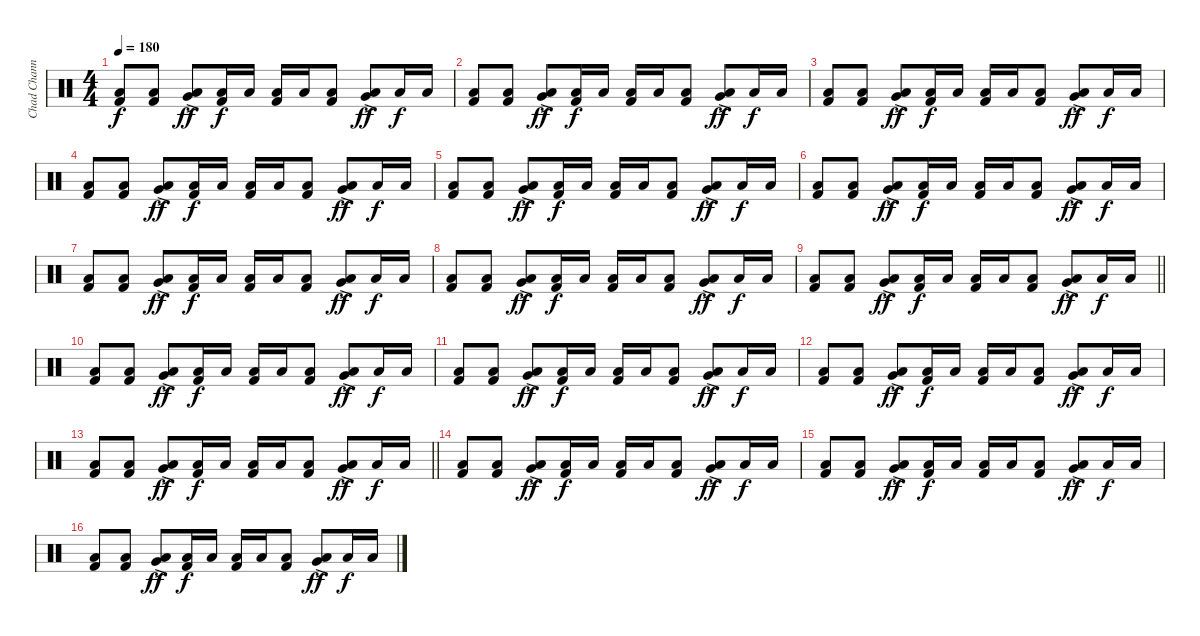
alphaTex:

\track ("Chad Channing" "Chad Chann") {instrument percussion}
\staff {score}
\articulation defaults
\ts (4 4)
\tempo 180
\clef neutral
\ks c
("Low Tom (hit)" "Kick (hit) 2").8{dy f} ("Low Tom (hit)" "Kick (hit) 2").8 ("Very Low Tom (hit)"{ac} "Low Floor Tom (hit)"{ac}).8{dy ff} ("Low Tom (hit)" "Kick (hit) 2").16{dy f} "Low Tom (hit)".16 ("Low Tom (hit)" "Kick (hit) 2").16 "Low Tom (hit)".16 ("Low Tom (hit)" "Kick (hit) 2").8 ("Very Low Tom (hit)"{ac} "Low Floor Tom (hit)"{ac}).8{dy ff} "Low Tom (hit)".16{dy f} "Low Tom (hit)".16 |
("Low Tom (hit)" "Kick (hit) 2").8 ("Low Tom (hit)" "Kick (hit) 2").8 ("Very Low Tom (hit)"{ac} "Low Floor Tom (hit)"{ac}).8{dy ff} ("Low Tom (hit)" "Kick (hit) 2").16{dy f} "Low Tom (hit)".16 ("Low Tom (hit)" "Kick (hit) 2").16 "Low Tom (hit)".16 ("Low Tom (hit)" "Kick (hit) 2").8 ("Very Low Tom (hit)"{ac} "Low Floor Tom (hit)"{ac}).8{dy ff} "Low Tom (hit)".16{dy f} "Low Tom (hit)".16 |
("Low Tom (hit)" "Kick (hit) 2").8 ("Low Tom (hit)" "Kick (hit) 2").8 ("Very Low Tom (hit)"{ac} "Low Floor Tom (hit)"{ac}).8{dy ff} ("Low Tom (hit)" "Kick (hit) 2").16{dy f} "Low Tom (hit)".16 ("Low Tom (hit)" "Kick (hit) 2").16 "Low Tom (hit)".16 ("Low Tom (hit)" "Kick (hit) 2").8 ("Very Low Tom (hit)"{ac} "Low Floor Tom (hit)"{ac}).8{dy ff} "Low Tom (hit)".16{dy f} "Low Tom (hit)".16 |
("Low Tom (hit)" "Kick (hit) 2").8 ("Low Tom (hit)" "Kick (hit) 2").8 ("Very Low Tom (hit)"{ac} "Low Floor Tom (hit)"{ac}).8{dy ff} ("Low Tom (hit)" "Kick (hit) 2").16{dy f} "Low Tom (hit)".16 ("Low Tom (hit)" "Kick (hit) 2").16 "Low Tom (hit)".16 ("Low Tom (hit)" "Kick (hit) 2").8 ("Very Low Tom (hit)"{ac} "Low Floor Tom (hit)"{ac}).8{dy ff} "Low Tom (hit)".16{dy f} "Low Tom (hit)".16 |
("Low Tom (hit)" "Kick (hit) 2").8 ("Low Tom (hit)" "Kick (hit) 2").8 ("Very Low Tom (hit)"{ac} "Low Floor Tom (hit)"{ac}).8{dy ff} ("Low Tom (hit)" "Kick (hit) 2").16{dy f} "Low Tom (hit)".16 ("Low Tom (hit)" "Kick (hit) 2").16 "Low Tom (hit)".16 ("Low Tom (hit)" "Kick (hit) 2").8 ("Very Low Tom (hit)"{ac} "Low Floor Tom (hit)"{ac}).8{dy ff} "Low Tom (hit)".16{dy f} "Low Tom (hit)".16 |
("Low Tom (hit)" "Kick (hit) 2").8 ("Low Tom (hit)" "Kick (hit) 2").8 ("Very Low Tom (hit)"{ac} "Low Floor Tom (hit)"{ac}).8{dy ff} ("Low Tom (hit)" "Kick (hit) 2").16{dy f} "Low Tom (hit)".16 ("Low Tom (hit)" "Kick (hit) 2").16 "Low Tom (hit)".16 ("Low Tom (hit)" "Kick (hit) 2").8 ("Very Low Tom (hit)"{ac} "Low Floor Tom (hit)"{ac}).8{dy ff} "Low Tom (hit)".16{dy f} "Low Tom (hit)".16 |
("Low Tom (hit)" "Kick (hit) 2").8 ("Low Tom (hit)" "Kick (hit) 2").8 ("Very Low Tom (hit)"{ac} "Low Floor Tom (hit)"{ac}).8{dy ff} ("Low Tom (hit)" "Kick (hit) 2").16{dy f} "Low Tom (hit)".16 ("Low Tom (hit)" "Kick (hit) 2").16 "Low Tom (hit)".16 ("Low Tom (hit)" "Kick (hit) 2").8 ("Very Low Tom (hit)"{ac} "Low Floor Tom (hit)"{ac}).8{dy ff} "Low Tom (hit)".16{dy f} "Low Tom (hit)".16 |
("Low Tom (hit)" "Kick (hit) 2").8 ("Low Tom (hit)" "Kick (hit) 2").8 ("Very Low Tom (hit)"{ac} "Low Floor Tom (hit)"{ac}).8{dy ff} ("Low Tom (hit)" "Kick (hit) 2").16{dy f} "Low Tom (hit)".16 ("Low Tom (hit)" "Kick (hit) 2").16 "Low Tom (hit)".16 ("Low Tom (hit)" "Kick (hit) 2").8 ("Very Low Tom (hit)"{ac} "Low Floor Tom (hit)"{ac}).8{dy ff} "Low Tom (hit)".16{dy f} "Low Tom (hit)".16 |
\barLineRight lightlight
("Low Tom (hit)" "Kick (hit) 2").8 ("Low Tom (hit)" "Kick (hit) 2").8 ("Very Low Tom (hit)"{ac} "Low Floor Tom (hit)"{ac}).8{dy ff} ("Low Tom (hit)" "Kick (hit) 2").16{dy f} "Low Tom (hit)".16 ("Low Tom (hit)" "Kick (hit) 2").16 "Low Tom (hit)".16 ("Low Tom (hit)" "Kick (hit) 2").8 ("Very Low Tom (hit)"{ac} "Low Floor Tom (hit)"{ac}).8{dy ff} "Low Tom (hit)".16{dy f} "Low Tom (hit)".16 |
("Low Tom (hit)" "Kick (hit) 2").8 ("Low Tom (hit)" "Kick (hit) 2").8 ("Very Low Tom (hit)"{ac} "Low Floor Tom (hit)"{ac}).8{dy ff} ("Low Tom (hit)" "Kick (hit) 2").16{dy f} "Low Tom (hit)".16 ("Low Tom (hit)" "Kick (hit) 2").16 "Low Tom (hit)".16 ("Low Tom (hit)" "Kick (hit) 2").8 ("Very Low Tom (hit)"{ac} "Low Floor Tom (hit)"{ac}).8{dy ff} "Low Tom (hit)".16{dy f} "Low Tom (hit)".16 |
("Low Tom (hit)" "Kick (hit) 2").8 ("Low Tom (hit)" "Kick (hit) 2").8 ("Very Low Tom (hit)"{ac} "Low Floor Tom (hit)"{ac}).8{dy ff} ("Low Tom (hit)" "Kick (hit) 2").16{dy f} "Low Tom (hit)".16 ("Low Tom (hit)" "Kick (hit) 2").16 "Low Tom (hit)".16 ("Low Tom (hit)" "Kick (hit) 2").8 ("Very Low Tom (hit)"{ac} "Low Floor Tom (hit)"{ac}).8{dy ff} "Low Tom (hit)".16{dy f} "Low Tom (hit)".16 |
("Low Tom (hit)" "Kick (hit) 2").8 ("Low Tom (hit)" "Kick (hit) 2").8 ("Very Low Tom (hit)"{ac} "Low Floor Tom (hit)"{ac}).8{dy ff} ("Low Tom (hit)" "Kick (hit) 2").16{dy f} "Low Tom (hit)".16 ("Low Tom (hit)" "Kick (hit) 2").16 "Low Tom (hit)".16 ("Low Tom (hit)" "Kick (hit) 2").8 ("Very Low Tom (hit)"{ac} "Low Floor Tom (hit)"{ac}).8{dy ff} "Low Tom (hit)".16{dy f} "Low Tom (hit)".16 |
\barLineRight lightlight
("Low Tom (hit)" "Kick (hit) 2").8 ("Low Tom (hit)" "Kick (hit) 2").8 ("Very Low Tom (hit)"{ac} "Low Floor Tom (hit)"{ac}).8{dy ff} ("Low Tom (hit)" "Kick (hit) 2").16{dy f} "Low Tom (hit)".16 ("Low Tom (hit)" "Kick (hit) 2").16 "Low Tom (hit)".16 ("Low Tom (hit)" "Kick (hit) 2").8 ("Very Low Tom (hit)"{ac} "Low Floor Tom (hit)"{ac}).8{dy ff} "Low Tom (hit)".16{dy f} "Low Tom (hit)".16 |
("Low Tom (hit)" "Kick (hit) 2").8 ("Low Tom (hit)" "Kick (hit) 2").8 ("Very Low Tom (hit)"{ac} "Low Floor Tom (hit)"{ac}).8{dy ff} ("Low Tom (hit)" "Kick (hit) 2").16{dy f} "Low Tom (hit)".16 ("Low Tom (hit)" "Kick (hit) 2").16 "Low Tom (hit)".16 ("Low Tom (hit)" "Kick (hit) 2").8 ("Very Low Tom (hit)"{ac} "Low Floor Tom (hit)"{ac}).8{dy ff} "Low Tom (hit)".16{dy f} "Low Tom (hit)".16 |
("Low Tom (hit)" "Kick (hit) 2").8 ("Low Tom (hit)" "Kick (hit) 2").8 ("Very Low Tom (hit)"{ac} "Low Floor Tom (hit)"{ac}).8{dy ff} ("Low Tom (hit)" "Kick (hit) 2").16{dy f} "Low Tom (hit)".16 ("Low Tom (hit)" "Kick (hit) 2").16 "Low Tom (hit)".16 ("Low Tom (hit)" "Kick (hit) 2").8 ("Very Low Tom (hit)"{ac} "Low Floor Tom (hit)"{ac}).8{dy ff} "Low Tom (hit)".16{dy f} "Low Tom (hit)".16 |
("Low Tom (hit)" "Kick (hit) 2").8 ("Low Tom (hit)" "Kick (hit) 2").8 ("Very Low Tom (hit)"{ac} "Low Floor Tom (hit)"{ac}).8{dy ff} ("Low Tom (hit)" "Kick (hit) 2").16{dy f} "Low Tom (hit)".16 ("Low Tom (hit)" "Kick (hit) 2").16 "Low Tom (hit)".16 ("Low Tom (hit)" "Kick (hit) 2").8 ("Very Low Tom (hit)"{ac} "Low Floor Tom (hit)"{ac}).8{dy ff} "Low Tom (hit)".16{dy f} "Low Tom (hit)".16
